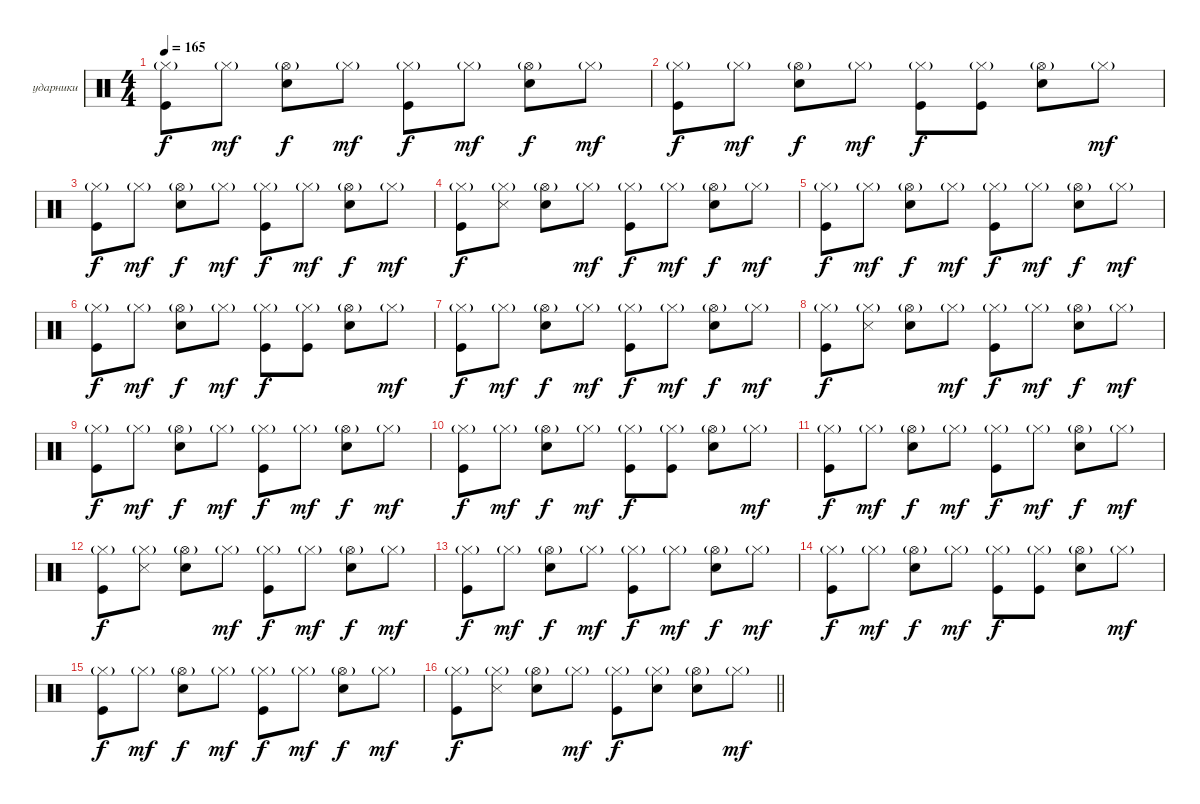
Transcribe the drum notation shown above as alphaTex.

\bracketExtendMode groupsimilarinstruments
\firstSystemTrackNameOrientation horizontal
\otherSystemsTrackNameOrientation horizontal
\track ("Георгий Гурьянов" "ударники") {instrument percussion}
\staff {score}
\articulation defaults
\ts (4 4)
\tempo 165
\clef neutral
\scale
0.333333
\ks c
("Hi-Hat (closed)"{g} "Kick (hit)").8{dy f} "Hi-Hat (closed)"{g}.8{dy mf} ("Hi-Hat (open)"{g} "Snare (hit) 2").8{dy f} "Hi-Hat (closed)"{g}.8{dy mf} ("Hi-Hat (closed)"{g} "Kick (hit)").8{dy f} "Hi-Hat (closed)"{g}.8{dy mf} ("Hi-Hat (open)"{g} "Snare (hit) 2").8{dy f} "Hi-Hat (closed)"{g}.8{dy mf} |
\scale
0.333333 ("Hi-Hat (closed)"{g} "Kick (hit)").8{dy f} "Hi-Hat (closed)"{g}.8{dy mf} ("Hi-Hat (open)"{g} "Snare (hit) 2").8{dy f} "Hi-Hat (closed)"{g}.8{dy mf} ("Hi-Hat (closed)"{g} "Kick (hit)").8{dy f} ("Hi-Hat (closed)"{g} "Kick (hit)").8 ("Hi-Hat (open)"{g} "Snare (hit) 2").8 "Hi-Hat (closed)"{g}.8{dy mf} |
\scale
0.333333 ("Hi-Hat (closed)"{g} "Kick (hit)").8{dy f} "Hi-Hat (closed)"{g}.8{dy mf} ("Hi-Hat (open)"{g} "Snare (hit) 2").8{dy f} "Hi-Hat (closed)"{g}.8{dy mf} ("Hi-Hat (closed)"{g} "Kick (hit)").8{dy f} "Hi-Hat (closed)"{g}.8{dy mf} ("Hi-Hat (open)"{g} "Snare (hit) 2").8{dy f} "Hi-Hat (closed)"{g}.8{dy mf} |
\scale
0.333333 ("Hi-Hat (closed)"{g} "Kick (hit)").8{dy f} ("Hi-Hat (closed)"{g} "Snare (side stick) 3").8 ("Hi-Hat (open)"{g} "Snare (hit) 2").8 "Hi-Hat (closed)"{g}.8{dy mf} ("Hi-Hat (closed)"{g} "Kick (hit)").8{dy f} "Hi-Hat (closed)"{g}.8{dy mf} ("Hi-Hat (open)"{g} "Snare (hit) 2").8{dy f} "Hi-Hat (closed)"{g}.8{dy mf} |
("Hi-Hat (closed)"{g} "Kick (hit)").8{dy f} "Hi-Hat (closed)"{g}.8{dy mf} ("Hi-Hat (open)"{g} "Snare (hit) 2").8{dy f} "Hi-Hat (closed)"{g}.8{dy mf} ("Hi-Hat (closed)"{g} "Kick (hit)").8{dy f} "Hi-Hat (closed)"{g}.8{dy mf} ("Hi-Hat (open)"{g} "Snare (hit) 2").8{dy f} "Hi-Hat (closed)"{g}.8{dy mf} |
\scale
0.333333 ("Hi-Hat (closed)"{g} "Kick (hit)").8{dy f} "Hi-Hat (closed)"{g}.8{dy mf} ("Hi-Hat (open)"{g} "Snare (hit) 2").8{dy f} "Hi-Hat (closed)"{g}.8{dy mf} ("Hi-Hat (closed)"{g} "Kick (hit)").8{dy f} ("Hi-Hat (closed)"{g} "Kick (hit)").8 ("Hi-Hat (open)"{g} "Snare (hit) 2").8 "Hi-Hat (closed)"{g}.8{dy mf} |
\scale
0.333333 ("Hi-Hat (closed)"{g} "Kick (hit)").8{dy f} "Hi-Hat (closed)"{g}.8{dy mf} ("Hi-Hat (open)"{g} "Snare (hit) 2").8{dy f} "Hi-Hat (closed)"{g}.8{dy mf} ("Hi-Hat (closed)"{g} "Kick (hit)").8{dy f} "Hi-Hat (closed)"{g}.8{dy mf} ("Hi-Hat (open)"{g} "Snare (hit) 2").8{dy f} "Hi-Hat (closed)"{g}.8{dy mf} |
\scale
0.333333 ("Hi-Hat (closed)"{g} "Kick (hit)").8{dy f} ("Hi-Hat (closed)"{g} "Snare (side stick) 3").8 ("Hi-Hat (open)"{g} "Snare (hit) 2").8 "Hi-Hat (closed)"{g}.8{dy mf} ("Hi-Hat (closed)"{g} "Kick (hit)").8{dy f} "Hi-Hat (closed)"{g}.8{dy mf} ("Hi-Hat (open)"{g} "Snare (hit) 2").8{dy f} "Hi-Hat (closed)"{g}.8{dy mf} |
\scale
0.333333 ("Hi-Hat (closed)"{g} "Kick (hit)").8{dy f} "Hi-Hat (closed)"{g}.8{dy mf} ("Hi-Hat (open)"{g} "Snare (hit) 2").8{dy f} "Hi-Hat (closed)"{g}.8{dy mf} ("Hi-Hat (closed)"{g} "Kick (hit)").8{dy f} "Hi-Hat (closed)"{g}.8{dy mf} ("Hi-Hat (open)"{g} "Snare (hit) 2").8{dy f} "Hi-Hat (closed)"{g}.8{dy mf} |
\scale
0.333333 ("Hi-Hat (closed)"{g} "Kick (hit)").8{dy f} "Hi-Hat (closed)"{g}.8{dy mf} ("Hi-Hat (open)"{g} "Snare (hit) 2").8{dy f} "Hi-Hat (closed)"{g}.8{dy mf} ("Hi-Hat (closed)"{g} "Kick (hit)").8{dy f} ("Hi-Hat (closed)"{g} "Kick (hit)").8 ("Hi-Hat (open)"{g} "Snare (hit) 2").8 "Hi-Hat (closed)"{g}.8{dy mf} |
\scale
0.333333 ("Hi-Hat (closed)"{g} "Kick (hit)").8{dy f} "Hi-Hat (closed)"{g}.8{dy mf} ("Hi-Hat (open)"{g} "Snare (hit) 2").8{dy f} "Hi-Hat (closed)"{g}.8{dy mf} ("Hi-Hat (closed)"{g} "Kick (hit)").8{dy f} "Hi-Hat (closed)"{g}.8{dy mf} ("Hi-Hat (open)"{g} "Snare (hit) 2").8{dy f} "Hi-Hat (closed)"{g}.8{dy mf} |
\scale
0.333333 ("Hi-Hat (closed)"{g} "Kick (hit)").8{dy f} ("Hi-Hat (closed)"{g} "Snare (side stick) 3").8 ("Hi-Hat (open)"{g} "Snare (hit) 2").8 "Hi-Hat (closed)"{g}.8{dy mf} ("Hi-Hat (closed)"{g} "Kick (hit)").8{dy f} "Hi-Hat (closed)"{g}.8{dy mf} ("Hi-Hat (open)"{g} "Snare (hit) 2").8{dy f} "Hi-Hat (closed)"{g}.8{dy mf} |
\scale
0.333333 ("Hi-Hat (closed)"{g} "Kick (hit)").8{dy f} "Hi-Hat (closed)"{g}.8{dy mf} ("Hi-Hat (open)"{g} "Snare (hit) 2").8{dy f} "Hi-Hat (closed)"{g}.8{dy mf} ("Hi-Hat (closed)"{g} "Kick (hit)").8{dy f} "Hi-Hat (closed)"{g}.8{dy mf} ("Hi-Hat (open)"{g} "Snare (hit) 2").8{dy f} "Hi-Hat (closed)"{g}.8{dy mf} |
\scale
0.333333 ("Hi-Hat (closed)"{g} "Kick (hit)").8{dy f} "Hi-Hat (closed)"{g}.8{dy mf} ("Hi-Hat (open)"{g} "Snare (hit) 2").8{dy f} "Hi-Hat (closed)"{g}.8{dy mf} ("Hi-Hat (closed)"{g} "Kick (hit)").8{dy f} ("Hi-Hat (closed)"{g} "Kick (hit)").8 ("Hi-Hat (open)"{g} "Snare (hit) 2").8 "Hi-Hat (closed)"{g}.8{dy mf} |
\scale
0.333333 ("Hi-Hat (closed)"{g} "Kick (hit)").8{dy f} "Hi-Hat (closed)"{g}.8{dy mf} ("Hi-Hat (open)"{g} "Snare (hit) 2").8{dy f} "Hi-Hat (closed)"{g}.8{dy mf} ("Hi-Hat (closed)"{g} "Kick (hit)").8{dy f} "Hi-Hat (closed)"{g}.8{dy mf} ("Hi-Hat (open)"{g} "Snare (hit) 2").8{dy f} "Hi-Hat (closed)"{g}.8{dy mf} |
\scale
0.333333
\barLineRight lightlight
("Hi-Hat (closed)"{g} "Kick (hit)").8{dy f} ("Hi-Hat (closed)"{g} "Snare (side stick) 3").8 ("Hi-Hat (open)"{g} "Snare (hit) 2").8 "Hi-Hat (closed)"{g}.8{dy mf} ("Hi-Hat (closed)"{g} "Kick (hit)").8{dy f} ("Hi-Hat (closed)"{g} "Snare (hit) 2").8 ("Hi-Hat (open)"{g} "Snare (hit) 2").8 "Hi-Hat (closed)"{g}.8{dy mf}
